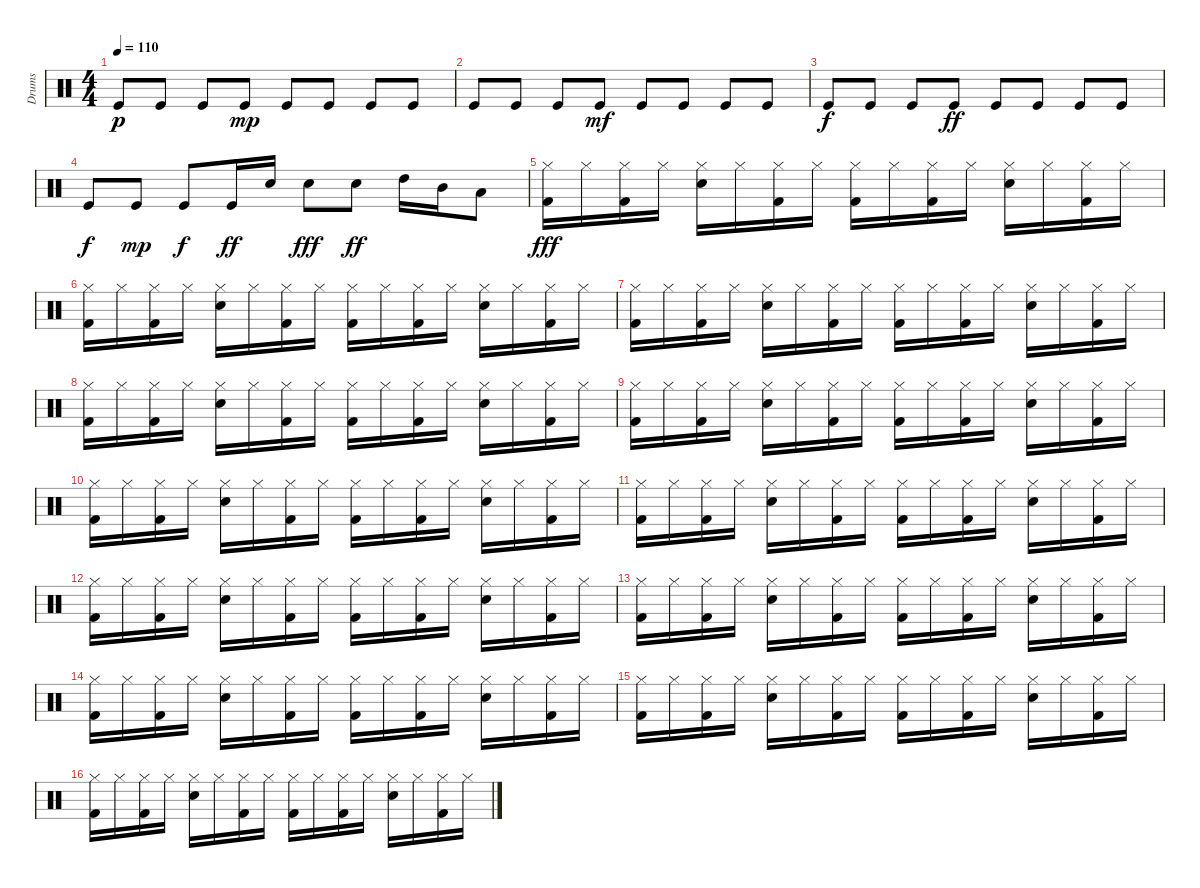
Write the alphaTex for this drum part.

\track ("Drums" "Drums") {instrument percussion}
\staff {score}
\articulation defaults
\ts (4 4)
\tempo 110
\clef neutral
\ks c "Kick (hit)".8{dy p} "Kick (hit)".8 "Kick (hit)".8 "Kick (hit)".8{dy mp} "Kick (hit)".8 "Kick (hit)".8 "Kick (hit)".8 "Kick (hit)".8
|
"Kick (hit)".8 "Kick (hit)".8 "Kick (hit)".8 "Kick (hit)".8{dy mf} "Kick (hit)".8 "Kick (hit)".8 "Kick (hit)".8 "Kick (hit)".8 |
"Kick (hit)".8{dy f} "Kick (hit)".8 "Kick (hit)".8 "Kick (hit)".8{dy ff} "Kick (hit)".8 "Kick (hit)".8 "Kick (hit)".8 "Kick (hit)".8 |
"Kick (hit)".8{dy f} "Kick (hit)".8{dy mp} "Kick (hit)".8{dy f} "Kick (hit)".16{dy ff} "Snare (hit) 2".16 "Snare (hit) 2".8{dy fff} "Snare (hit) 2".8{dy ff} "High Tom (hit)".16 "Mid Tom (hit)".16 "Low Tom (hit)".8 |
("Kick (hit) 2" "Hi-Hat (closed)").16{dy fff} "Hi-Hat (closed)".16 ("Kick (hit) 2" "Hi-Hat (closed)").16 "Hi-Hat (closed)".16 ("Electric Snare (hit)" "Hi-Hat (closed)").16 "Hi-Hat (closed)".16 ("Kick (hit) 2" "Hi-Hat (closed)").16 "Hi-Hat (closed)".16 ("Kick (hit) 2" "Hi-Hat (closed)").16 "Hi-Hat (closed)".16 ("Kick (hit) 2" "Hi-Hat (closed)").16 "Hi-Hat (closed)".16 ("Electric Snare (hit)" "Hi-Hat (closed)").16 "Hi-Hat (closed)".16 ("Kick (hit) 2" "Hi-Hat (closed)").16 "Hi-Hat (closed)".16 |
("Kick (hit) 2" "Hi-Hat (closed)").16 "Hi-Hat (closed)".16 ("Kick (hit) 2" "Hi-Hat (closed)").16 "Hi-Hat (closed)".16 ("Electric Snare (hit)" "Hi-Hat (closed)").16 "Hi-Hat (closed)".16 ("Kick (hit) 2" "Hi-Hat (closed)").16 "Hi-Hat (closed)".16 ("Kick (hit) 2" "Hi-Hat (closed)").16 "Hi-Hat (closed)".16 ("Kick (hit) 2" "Hi-Hat (closed)").16 "Hi-Hat (closed)".16 ("Electric Snare (hit)" "Hi-Hat (closed)").16 "Hi-Hat (closed)".16 ("Kick (hit) 2" "Hi-Hat (closed)").16 "Hi-Hat (closed)".16 |
("Kick (hit) 2" "Hi-Hat (closed)").16 "Hi-Hat (closed)".16 ("Kick (hit) 2" "Hi-Hat (closed)").16 "Hi-Hat (closed)".16 ("Electric Snare (hit)" "Hi-Hat (closed)").16 "Hi-Hat (closed)".16 ("Kick (hit) 2" "Hi-Hat (closed)").16 "Hi-Hat (closed)".16 ("Kick (hit) 2" "Hi-Hat (closed)").16 "Hi-Hat (closed)".16 ("Kick (hit) 2" "Hi-Hat (closed)").16 "Hi-Hat (closed)".16 ("Electric Snare (hit)" "Hi-Hat (closed)").16 "Hi-Hat (closed)".16 ("Kick (hit) 2" "Hi-Hat (closed)").16 "Hi-Hat (closed)".16 |
("Kick (hit) 2" "Hi-Hat (closed)").16 "Hi-Hat (closed)".16 ("Kick (hit) 2" "Hi-Hat (closed)").16 "Hi-Hat (closed)".16 ("Electric Snare (hit)" "Hi-Hat (closed)").16 "Hi-Hat (closed)".16 ("Kick (hit) 2" "Hi-Hat (closed)").16 "Hi-Hat (closed)".16 ("Kick (hit) 2" "Hi-Hat (closed)").16 "Hi-Hat (closed)".16 ("Kick (hit) 2" "Hi-Hat (closed)").16 "Hi-Hat (closed)".16 ("Electric Snare (hit)" "Hi-Hat (closed)").16 "Hi-Hat (closed)".16 ("Kick (hit) 2" "Hi-Hat (closed)").16 "Hi-Hat (closed)".16 |
("Kick (hit) 2" "Hi-Hat (closed)").16 "Hi-Hat (closed)".16 ("Kick (hit) 2" "Hi-Hat (closed)").16 "Hi-Hat (closed)".16 ("Electric Snare (hit)" "Hi-Hat (closed)").16 "Hi-Hat (closed)".16 ("Kick (hit) 2" "Hi-Hat (closed)").16 "Hi-Hat (closed)".16 ("Kick (hit) 2" "Hi-Hat (closed)").16 "Hi-Hat (closed)".16 ("Kick (hit) 2" "Hi-Hat (closed)").16 "Hi-Hat (closed)".16 ("Electric Snare (hit)" "Hi-Hat (closed)").16 "Hi-Hat (closed)".16 ("Kick (hit) 2" "Hi-Hat (closed)").16 "Hi-Hat (closed)".16 |
("Kick (hit) 2" "Hi-Hat (closed)").16 "Hi-Hat (closed)".16 ("Kick (hit) 2" "Hi-Hat (closed)").16 "Hi-Hat (closed)".16 ("Electric Snare (hit)" "Hi-Hat (closed)").16 "Hi-Hat (closed)".16 ("Kick (hit) 2" "Hi-Hat (closed)").16 "Hi-Hat (closed)".16 ("Kick (hit) 2" "Hi-Hat (closed)").16 "Hi-Hat (closed)".16 ("Kick (hit) 2" "Hi-Hat (closed)").16 "Hi-Hat (closed)".16 ("Electric Snare (hit)" "Hi-Hat (closed)").16 "Hi-Hat (closed)".16 ("Kick (hit) 2" "Hi-Hat (closed)").16 "Hi-Hat (closed)".16 |
("Kick (hit) 2" "Hi-Hat (closed)").16 "Hi-Hat (closed)".16 ("Kick (hit) 2" "Hi-Hat (closed)").16 "Hi-Hat (closed)".16 ("Electric Snare (hit)" "Hi-Hat (closed)").16 "Hi-Hat (closed)".16 ("Kick (hit) 2" "Hi-Hat (closed)").16 "Hi-Hat (closed)".16 ("Kick (hit) 2" "Hi-Hat (closed)").16 "Hi-Hat (closed)".16 ("Kick (hit) 2" "Hi-Hat (closed)").16 "Hi-Hat (closed)".16 ("Electric Snare (hit)" "Hi-Hat (closed)").16 "Hi-Hat (closed)".16 ("Kick (hit) 2" "Hi-Hat (closed)").16 "Hi-Hat (closed)".16 |
("Kick (hit) 2" "Hi-Hat (closed)").16 "Hi-Hat (closed)".16 ("Kick (hit) 2" "Hi-Hat (closed)").16 "Hi-Hat (closed)".16 ("Electric Snare (hit)" "Hi-Hat (closed)").16 "Hi-Hat (closed)".16 ("Kick (hit) 2" "Hi-Hat (closed)").16 "Hi-Hat (closed)".16 ("Kick (hit) 2" "Hi-Hat (closed)").16 "Hi-Hat (closed)".16 ("Kick (hit) 2" "Hi-Hat (closed)").16 "Hi-Hat (closed)".16 ("Electric Snare (hit)" "Hi-Hat (closed)").16 "Hi-Hat (closed)".16 ("Kick (hit) 2" "Hi-Hat (closed)").16 "Hi-Hat (closed)".16 |
("Kick (hit) 2" "Hi-Hat (closed)").16 "Hi-Hat (closed)".16 ("Kick (hit) 2" "Hi-Hat (closed)").16 "Hi-Hat (closed)".16 ("Electric Snare (hit)" "Hi-Hat (closed)").16 "Hi-Hat (closed)".16 ("Kick (hit) 2" "Hi-Hat (closed)").16 "Hi-Hat (closed)".16 ("Kick (hit) 2" "Hi-Hat (closed)").16 "Hi-Hat (closed)".16 ("Kick (hit) 2" "Hi-Hat (closed)").16 "Hi-Hat (closed)".16 ("Electric Snare (hit)" "Hi-Hat (closed)").16 "Hi-Hat (closed)".16 ("Kick (hit) 2" "Hi-Hat (closed)").16 "Hi-Hat (closed)".16 |
("Kick (hit) 2" "Hi-Hat (closed)").16 "Hi-Hat (closed)".16 ("Kick (hit) 2" "Hi-Hat (closed)").16 "Hi-Hat (closed)".16 ("Electric Snare (hit)" "Hi-Hat (closed)").16 "Hi-Hat (closed)".16 ("Kick (hit) 2" "Hi-Hat (closed)").16 "Hi-Hat (closed)".16 ("Kick (hit) 2" "Hi-Hat (closed)").16 "Hi-Hat (closed)".16 ("Kick (hit) 2" "Hi-Hat (closed)").16 "Hi-Hat (closed)".16 ("Electric Snare (hit)" "Hi-Hat (closed)").16 "Hi-Hat (closed)".16 ("Kick (hit) 2" "Hi-Hat (closed)").16 "Hi-Hat (closed)".16 |
("Kick (hit) 2" "Hi-Hat (closed)").16 "Hi-Hat (closed)".16 ("Kick (hit) 2" "Hi-Hat (closed)").16 "Hi-Hat (closed)".16 ("Electric Snare (hit)" "Hi-Hat (closed)").16 "Hi-Hat (closed)".16 ("Kick (hit) 2" "Hi-Hat (closed)").16 "Hi-Hat (closed)".16 ("Kick (hit) 2" "Hi-Hat (closed)").16 "Hi-Hat (closed)".16 ("Kick (hit) 2" "Hi-Hat (closed)").16 "Hi-Hat (closed)".16 ("Electric Snare (hit)" "Hi-Hat (closed)").16 "Hi-Hat (closed)".16 ("Kick (hit) 2" "Hi-Hat (closed)").16 "Hi-Hat (closed)".16 |
("Kick (hit) 2" "Hi-Hat (closed)").16 "Hi-Hat (closed)".16 ("Kick (hit) 2" "Hi-Hat (closed)").16 "Hi-Hat (closed)".16 ("Electric Snare (hit)" "Hi-Hat (closed)").16 "Hi-Hat (closed)".16 ("Kick (hit) 2" "Hi-Hat (closed)").16 "Hi-Hat (closed)".16 ("Kick (hit) 2" "Hi-Hat (closed)").16 "Hi-Hat (closed)".16 ("Kick (hit) 2" "Hi-Hat (closed)").16 "Hi-Hat (closed)".16 ("Electric Snare (hit)" "Hi-Hat (closed)").16 "Hi-Hat (closed)".16 ("Kick (hit) 2" "Hi-Hat (closed)").16 "Hi-Hat (closed)".16
